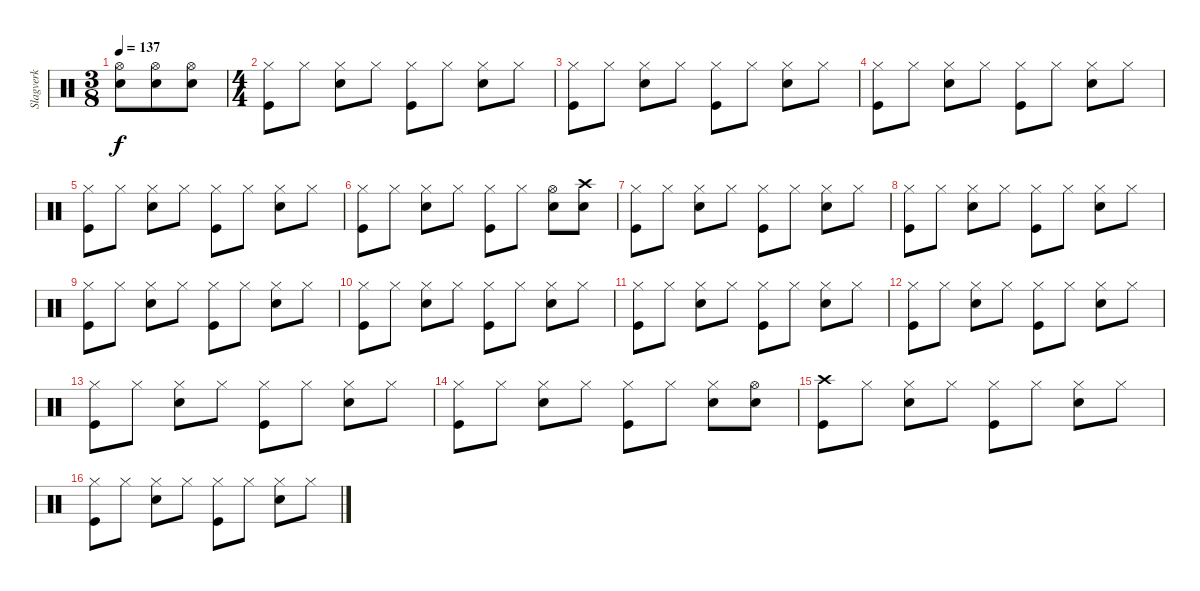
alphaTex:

\track ("Slagverk" "Slagverk") {instrument percussion}
\staff {score}
\articulation defaults
\ts (3 8)
\tempo 137
\clef neutral
\ks c
("Snare (hit) 2" "Hi-Hat (open)").8{dy f} ("Snare (hit) 2" "Hi-Hat (open)").8 ("Snare (hit) 2" "Hi-Hat (open)").8 |
\ts (4 4)
("Hi-Hat (closed)" "Kick (hit)").8 "Hi-Hat (closed)".8 ("Hi-Hat (closed)" "Snare (hit) 2").8 "Hi-Hat (closed)".8 ("Hi-Hat (closed)" "Kick (hit)").8 "Hi-Hat (closed)".8 ("Hi-Hat (closed)" "Snare (hit) 2").8 "Hi-Hat (closed)".8 |
("Hi-Hat (closed)" "Kick (hit)").8 "Hi-Hat (closed)".8 ("Hi-Hat (closed)" "Snare (hit) 2").8 "Hi-Hat (closed)".8 ("Hi-Hat (closed)" "Kick (hit)").8 "Hi-Hat (closed)".8 ("Hi-Hat (closed)" "Snare (hit) 2").8 "Hi-Hat (closed)".8 |
("Hi-Hat (closed)" "Kick (hit)").8 "Hi-Hat (closed)".8 ("Hi-Hat (closed)" "Snare (hit) 2").8 "Hi-Hat (closed)".8 ("Hi-Hat (closed)" "Kick (hit)").8 "Hi-Hat (closed)".8 ("Hi-Hat (closed)" "Snare (hit) 2").8 "Hi-Hat (closed)".8 |
("Hi-Hat (closed)" "Kick (hit)").8 "Hi-Hat (closed)".8 ("Hi-Hat (closed)" "Snare (hit) 2").8 "Hi-Hat (closed)".8 ("Hi-Hat (closed)" "Kick (hit)").8 "Hi-Hat (closed)".8 ("Hi-Hat (closed)" "Snare (hit) 2").8 "Hi-Hat (closed)".8 |
("Hi-Hat (closed)" "Kick (hit)").8 "Hi-Hat (closed)".8 ("Hi-Hat (closed)" "Snare (hit) 2").8 "Hi-Hat (closed)".8 ("Hi-Hat (closed)" "Kick (hit)").8 "Hi-Hat (closed)".8 ("Hi-Hat (open)" "Snare (hit) 2").8 ("Crash high (hit)" "Snare (hit) 2").8 |
("Hi-Hat (closed)" "Kick (hit)").8 "Hi-Hat (closed)".8 ("Hi-Hat (closed)" "Snare (hit) 2").8 "Hi-Hat (closed)".8 ("Hi-Hat (closed)" "Kick (hit)").8 "Hi-Hat (closed)".8 ("Hi-Hat (closed)" "Snare (hit) 2").8 "Hi-Hat (closed)".8 |
("Hi-Hat (closed)" "Kick (hit)").8 "Hi-Hat (closed)".8 ("Hi-Hat (closed)" "Snare (hit) 2").8 "Hi-Hat (closed)".8 ("Hi-Hat (closed)" "Kick (hit)").8 "Hi-Hat (closed)".8 ("Hi-Hat (closed)" "Snare (hit) 2").8 "Hi-Hat (closed)".8 |
("Hi-Hat (closed)" "Kick (hit)").8 "Hi-Hat (closed)".8 ("Hi-Hat (closed)" "Snare (hit) 2").8 "Hi-Hat (closed)".8 ("Hi-Hat (closed)" "Kick (hit)").8 "Hi-Hat (closed)".8 ("Hi-Hat (closed)" "Snare (hit) 2").8 "Hi-Hat (closed)".8 |
("Hi-Hat (closed)" "Kick (hit)").8 "Hi-Hat (closed)".8 ("Hi-Hat (closed)" "Snare (hit) 2").8 "Hi-Hat (closed)".8 ("Hi-Hat (closed)" "Kick (hit)").8 "Hi-Hat (closed)".8 ("Hi-Hat (closed)" "Snare (hit) 2").8 "Hi-Hat (closed)".8 |
("Hi-Hat (closed)" "Kick (hit)").8 "Hi-Hat (closed)".8 ("Hi-Hat (closed)" "Snare (hit) 2").8 "Hi-Hat (closed)".8 ("Hi-Hat (closed)" "Kick (hit)").8 "Hi-Hat (closed)".8 ("Hi-Hat (closed)" "Snare (hit) 2").8 "Hi-Hat (closed)".8 |
("Hi-Hat (closed)" "Kick (hit)").8 "Hi-Hat (closed)".8 ("Hi-Hat (closed)" "Snare (hit) 2").8 "Hi-Hat (closed)".8 ("Hi-Hat (closed)" "Kick (hit)").8 "Hi-Hat (closed)".8 ("Hi-Hat (closed)" "Snare (hit) 2").8 "Hi-Hat (closed)".8 |
("Hi-Hat (closed)" "Kick (hit)").8 "Hi-Hat (closed)".8 ("Hi-Hat (closed)" "Snare (hit) 2").8 "Hi-Hat (closed)".8 ("Hi-Hat (closed)" "Kick (hit)").8 "Hi-Hat (closed)".8 ("Hi-Hat (closed)" "Snare (hit) 2").8 "Hi-Hat (closed)".8 |
("Hi-Hat (closed)" "Kick (hit)").8 "Hi-Hat (closed)".8 ("Hi-Hat (closed)" "Snare (hit) 2").8 "Hi-Hat (closed)".8 ("Hi-Hat (closed)" "Kick (hit)").8 "Hi-Hat (closed)".8 ("Hi-Hat (closed)" "Snare (hit) 2").8 ("Hi-Hat (open)" "Snare (hit) 2").8 |
("Crash high (hit)" "Kick (hit)").8 "Hi-Hat (closed)".8 ("Hi-Hat (closed)" "Snare (hit) 2").8 "Hi-Hat (closed)".8 ("Hi-Hat (closed)" "Kick (hit)").8 "Hi-Hat (closed)".8 ("Hi-Hat (closed)" "Snare (hit) 2").8 "Hi-Hat (closed)".8 |
("Hi-Hat (closed)" "Kick (hit)").8 "Hi-Hat (closed)".8 ("Hi-Hat (closed)" "Snare (hit) 2").8 "Hi-Hat (closed)".8 ("Hi-Hat (closed)" "Kick (hit)").8 "Hi-Hat (closed)".8 ("Hi-Hat (closed)" "Snare (hit) 2").8 "Hi-Hat (closed)".8
